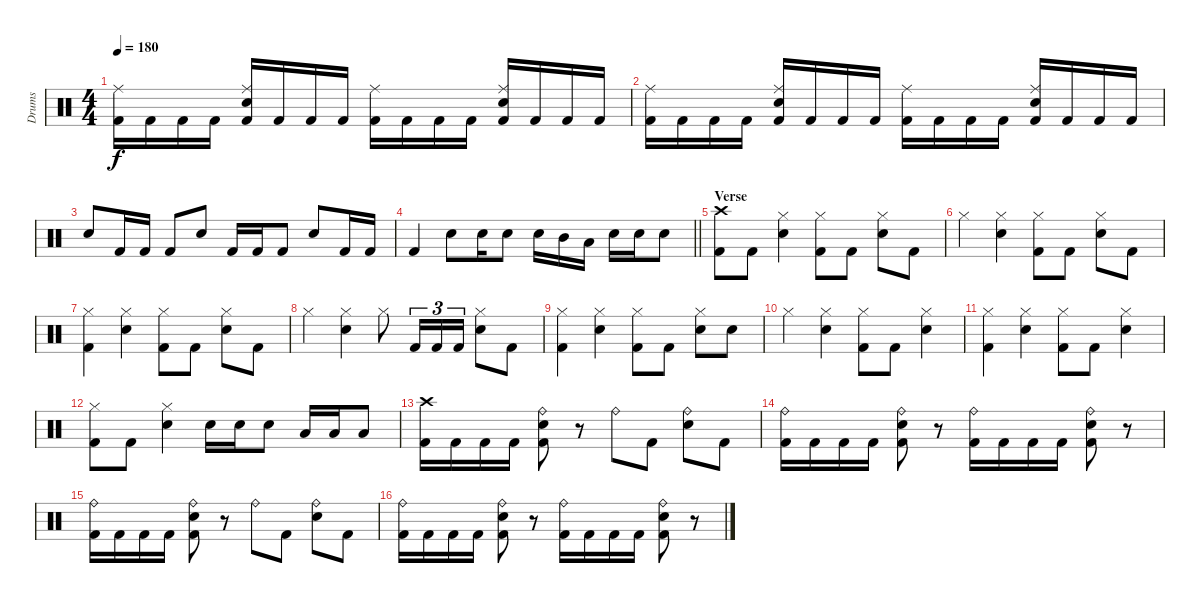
\track ("Drums " "Drums ") {instrument percussion}
\staff {score}
\articulation defaults
\ts (4 4)
\tempo 180
\clef neutral
\ks c
("Kick (hit) 2" "Ride (middle)").16{dy f} "Kick (hit) 2".16 "Kick (hit) 2".16 "Kick (hit) 2".16 ("Kick (hit) 2" "Ride (middle)" "Electric Snare (hit)").16 "Kick (hit) 2".16 "Kick (hit) 2".16 "Kick (hit) 2".16 ("Kick (hit) 2" "Ride (middle)").16 "Kick (hit) 2".16 "Kick (hit) 2".16 "Kick (hit) 2".16 ("Kick (hit) 2" "Ride (middle)" "Electric Snare (hit)").16 "Kick (hit) 2".16 "Kick (hit) 2".16 "Kick (hit) 2".16 |
("Kick (hit) 2" "Ride (middle)").16 "Kick (hit) 2".16 "Kick (hit) 2".16 "Kick (hit) 2".16 ("Kick (hit) 2" "Ride (middle)" "Electric Snare (hit)").16 "Kick (hit) 2".16 "Kick (hit) 2".16 "Kick (hit) 2".16 ("Kick (hit) 2" "Ride (middle)").16 "Kick (hit) 2".16 "Kick (hit) 2".16 "Kick (hit) 2".16 ("Kick (hit) 2" "Ride (middle)" "Electric Snare (hit)").16 "Kick (hit) 2".16 "Kick (hit) 2".16 "Kick (hit) 2".16 |
"Electric Snare (hit)".8 "Kick (hit) 2".16 "Kick (hit) 2".16 "Kick (hit) 2".8 "Electric Snare (hit)".8 "Kick (hit) 2".16 "Kick (hit) 2".16 "Kick (hit) 2".8 "Electric Snare (hit)".8 "Kick (hit) 2".16 "Kick (hit) 2".16 |
\barLineRight lightlight "Kick (hit) 2".4 "Electric Snare (hit)".8 "Electric Snare (hit)".16 "Electric Snare (hit)".8 "Electric Snare (hit)".16 "Mid Tom (hit)".16 "Low Tom (hit)".16 "Electric Snare (hit)".16 "Electric Snare (hit)".16 "Electric Snare (hit)".8
|
\section ("" "Verse")
("Kick (hit) 2" "Crash high (hit)").8 "Kick (hit) 2".8 ("Hi-Hat (closed)" "Electric Snare (hit)").4 ("Kick (hit) 2" "Hi-Hat (closed)").8 "Kick (hit) 2".8 ("Hi-Hat (closed)" "Electric Snare (hit)").8 "Kick (hit) 2".8 |
"Hi-Hat (closed)".4 ("Hi-Hat (closed)" "Electric Snare (hit)").4 ("Kick (hit) 2" "Hi-Hat (closed)").8 "Kick (hit) 2".8 ("Hi-Hat (closed)" "Electric Snare (hit)").8 "Kick (hit) 2".8 |
("Kick (hit) 2" "Hi-Hat (closed)").4 ("Hi-Hat (closed)" "Electric Snare (hit)").4 ("Kick (hit) 2" "Hi-Hat (closed)").8 "Kick (hit) 2".8 ("Hi-Hat (closed)" "Electric Snare (hit)").8 "Kick (hit) 2".8 |
"Hi-Hat (closed)".4 ("Hi-Hat (closed)" "Electric Snare (hit)").4 "Hi-Hat (closed)".8 "Kick (hit) 2".16{tu (3 2)} "Kick (hit) 2".16{tu (3 2)} "Kick (hit) 2".16{tu (3 2)} ("Hi-Hat (closed)" "Electric Snare (hit)").8 "Kick (hit) 2".8 |
("Kick (hit) 2" "Hi-Hat (closed)").4 ("Hi-Hat (closed)" "Electric Snare (hit)").4 ("Kick (hit) 2" "Hi-Hat (closed)").8 "Kick (hit) 2".8 ("Hi-Hat (closed)" "Electric Snare (hit)").8 "Electric Snare (hit)".8 |
"Hi-Hat (closed)".4 ("Hi-Hat (closed)" "Electric Snare (hit)").4 ("Kick (hit) 2" "Hi-Hat (closed)").8 "Kick (hit) 2".8 ("Hi-Hat (closed)" "Electric Snare (hit)").4 |
("Kick (hit) 2" "Hi-Hat (closed)").4 ("Hi-Hat (closed)" "Electric Snare (hit)").4 ("Kick (hit) 2" "Hi-Hat (closed)").8 "Kick (hit) 2".8 ("Hi-Hat (closed)" "Electric Snare (hit)").4 |
("Kick (hit) 2" "Hi-Hat (closed)").8 "Kick (hit) 2".8 ("Hi-Hat (closed)" "Electric Snare (hit)").4 "Electric Snare (hit)".16 "Electric Snare (hit)".16 "Electric Snare (hit)".8 "Low Tom (hit)".16 "Low Tom (hit)".16 "Low Tom (hit)".8 |
("Kick (hit) 2" "Crash high (hit)").16 "Kick (hit) 2".16 "Kick (hit) 2".16 "Kick (hit) 2".16 ("Kick (hit) 2" "Ride (bell)" "Electric Snare (hit)").8 r.8 "Ride (bell)".8 "Kick (hit) 2".8 ("Ride (bell)" "Electric Snare (hit)").8 "Kick (hit) 2".8 |
("Kick (hit) 2" "Ride (bell)").16 "Kick (hit) 2".16 "Kick (hit) 2".16 "Kick (hit) 2".16 ("Kick (hit) 2" "Ride (bell)" "Electric Snare (hit)").8 r.8 ("Kick (hit) 2" "Ride (bell)").16 "Kick (hit) 2".16 "Kick (hit) 2".16 "Kick (hit) 2".16 ("Kick (hit) 2" "Ride (bell)" "Electric Snare (hit)").8 r.8 |
("Kick (hit) 2" "Ride (bell)").16 "Kick (hit) 2".16 "Kick (hit) 2".16 "Kick (hit) 2".16 ("Kick (hit) 2" "Ride (bell)" "Electric Snare (hit)").8 r.8 "Ride (bell)".8 "Kick (hit) 2".8 ("Ride (bell)" "Electric Snare (hit)").8 "Kick (hit) 2".8 |
("Kick (hit) 2" "Ride (bell)").16 "Kick (hit) 2".16 "Kick (hit) 2".16 "Kick (hit) 2".16 ("Kick (hit) 2" "Ride (bell)" "Electric Snare (hit)").8 r.8 ("Kick (hit) 2" "Ride (bell)").16 "Kick (hit) 2".16 "Kick (hit) 2".16 "Kick (hit) 2".16 ("Kick (hit) 2" "Ride (bell)" "Electric Snare (hit)").8 r.8
